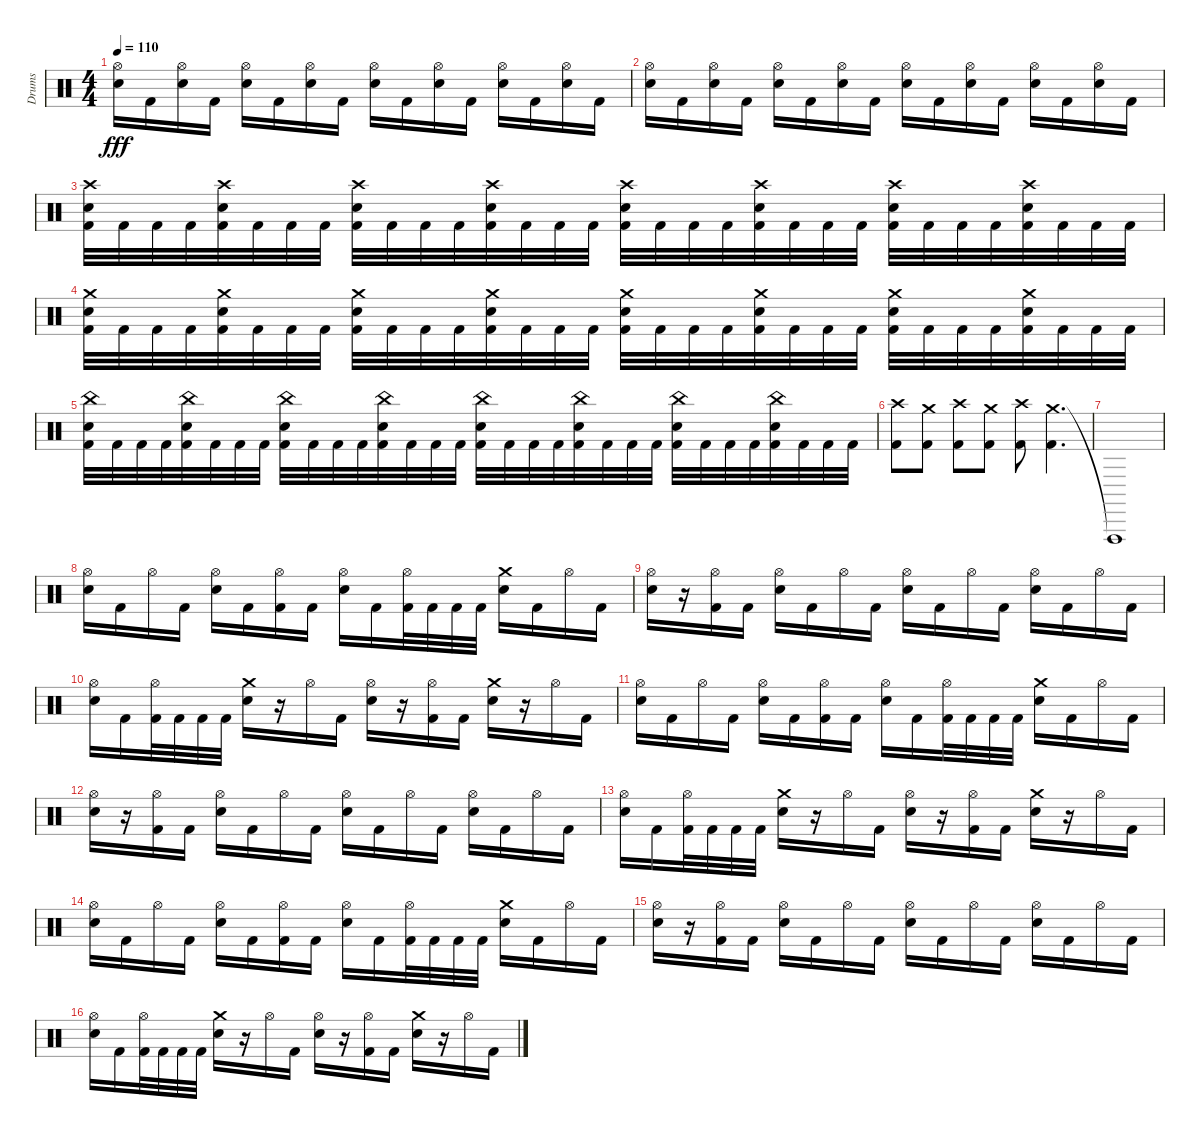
\track ("Drums" "Drums") {instrument percussion}
\staff {score}
\articulation defaults
\ts (4 4)
\tempo 110
\clef neutral
\ks c
("Hi-Hat (open)" "Snare (hit) 2").16{dy fff} "Kick (hit) 2".16 ("Hi-Hat (open)" "Snare (hit) 2").16 "Kick (hit) 2".16 ("Hi-Hat (open)" "Snare (hit) 2").16 "Kick (hit) 2".16 ("Hi-Hat (open)" "Snare (hit) 2").16 "Kick (hit) 2".16 ("Hi-Hat (open)" "Snare (hit) 2").16 "Kick (hit) 2".16 ("Hi-Hat (open)" "Snare (hit) 2").16 "Kick (hit) 2".16 ("Hi-Hat (open)" "Snare (hit) 2").16 "Kick (hit) 2".16 ("Hi-Hat (open)" "Snare (hit) 2").16 "Kick (hit) 2".16 |
("Hi-Hat (open)" "Snare (hit) 2").16 "Kick (hit) 2".16 ("Hi-Hat (open)" "Snare (hit) 2").16 "Kick (hit) 2".16 ("Hi-Hat (open)" "Snare (hit) 2").16 "Kick (hit) 2".16 ("Hi-Hat (open)" "Snare (hit) 2").16 "Kick (hit) 2".16 ("Hi-Hat (open)" "Snare (hit) 2").16 "Kick (hit) 2".16 ("Hi-Hat (open)" "Snare (hit) 2").16 "Kick (hit) 2".16 ("Hi-Hat (open)" "Snare (hit) 2").16 "Kick (hit) 2".16 ("Hi-Hat (open)" "Snare (hit) 2").16 "Kick (hit) 2".16 |
("Crash high (hit)" "Snare (hit) 2" "Kick (hit) 2").32 "Kick (hit) 2".32 "Kick (hit) 2".32 "Kick (hit) 2".32 ("Crash high (hit)" "Snare (hit) 2" "Kick (hit) 2").32 "Kick (hit) 2".32 "Kick (hit) 2".32 "Kick (hit) 2".32 ("Crash high (hit)" "Snare (hit) 2" "Kick (hit) 2").32 "Kick (hit) 2".32 "Kick (hit) 2".32 "Kick (hit) 2".32 ("Crash high (hit)" "Snare (hit) 2" "Kick (hit) 2").32 "Kick (hit) 2".32 "Kick (hit) 2".32 "Kick (hit) 2".32 ("Crash high (hit)" "Snare (hit) 2" "Kick (hit) 2").32 "Kick (hit) 2".32 "Kick (hit) 2".32 "Kick (hit) 2".32 ("Crash high (hit)" "Snare (hit) 2" "Kick (hit) 2").32 "Kick (hit) 2".32 "Kick (hit) 2".32 "Kick (hit) 2".32 ("Crash high (hit)" "Snare (hit) 2" "Kick (hit) 2").32 "Kick (hit) 2".32 "Kick (hit) 2".32 "Kick (hit) 2".32 ("Crash high (hit)" "Snare (hit) 2" "Kick (hit) 2").32 "Kick (hit) 2".32 "Kick (hit) 2".32 "Kick (hit) 2".32 |
("Crash medium (hit)" "Snare (hit) 2" "Kick (hit) 2").32 "Kick (hit) 2".32 "Kick (hit) 2".32 "Kick (hit) 2".32 ("Crash medium (hit)" "Snare (hit) 2" "Kick (hit) 2").32 "Kick (hit) 2".32 "Kick (hit) 2".32 "Kick (hit) 2".32 ("Crash medium (hit)" "Snare (hit) 2" "Kick (hit) 2").32 "Kick (hit) 2".32 "Kick (hit) 2".32 "Kick (hit) 2".32 ("Crash medium (hit)" "Snare (hit) 2" "Kick (hit) 2").32 "Kick (hit) 2".32 "Kick (hit) 2".32 "Kick (hit) 2".32 ("Crash medium (hit)" "Snare (hit) 2" "Kick (hit) 2").32 "Kick (hit) 2".32 "Kick (hit) 2".32 "Kick (hit) 2".32 ("Crash medium (hit)" "Snare (hit) 2" "Kick (hit) 2").32 "Kick (hit) 2".32 "Kick (hit) 2".32 "Kick (hit) 2".32 ("Crash medium (hit)" "Snare (hit) 2" "Kick (hit) 2").32 "Kick (hit) 2".32 "Kick (hit) 2".32 "Kick (hit) 2".32 ("Crash medium (hit)" "Snare (hit) 2" "Kick (hit) 2").32 "Kick (hit) 2".32 "Kick (hit) 2".32 "Kick (hit) 2".32 |
("China (hit)" "Snare (hit) 2" "Kick (hit) 2").32 "Kick (hit) 2".32 "Kick (hit) 2".32 "Kick (hit) 2".32 ("China (hit)" "Snare (hit) 2" "Kick (hit) 2").32 "Kick (hit) 2".32 "Kick (hit) 2".32 "Kick (hit) 2".32 ("China (hit)" "Snare (hit) 2" "Kick (hit) 2").32 "Kick (hit) 2".32 "Kick (hit) 2".32 "Kick (hit) 2".32 ("China (hit)" "Snare (hit) 2" "Kick (hit) 2").32 "Kick (hit) 2".32 "Kick (hit) 2".32 "Kick (hit) 2".32 ("China (hit)" "Snare (hit) 2" "Kick (hit) 2").32 "Kick (hit) 2".32 "Kick (hit) 2".32 "Kick (hit) 2".32 ("China (hit)" "Snare (hit) 2" "Kick (hit) 2").32 "Kick (hit) 2".32 "Kick (hit) 2".32 "Kick (hit) 2".32 ("China (hit)" "Snare (hit) 2" "Kick (hit) 2").32 "Kick (hit) 2".32 "Kick (hit) 2".32 "Kick (hit) 2".32 ("China (hit)" "Snare (hit) 2" "Kick (hit) 2").32 "Kick (hit) 2".32 "Kick (hit) 2".32 "Kick (hit) 2".32 |
("Crash high (hit)" "Kick (hit) 2").8 ("Crash medium (hit)" "Kick (hit) 2").8 ("Crash high (hit)" "Kick (hit) 2").8 ("Crash medium (hit)" "Kick (hit) 2").8 ("Crash high (hit)" "Kick (hit) 2").8 ("Crash medium (hit)" "Kick (hit) 2").4{d} |
"Vibraslap (hit)"{t}.1 |
("Hi-Hat (open)" "Snare (hit) 2").16 "Kick (hit) 2".16 "Hi-Hat (open)".16 "Kick (hit) 2".16 ("Hi-Hat (open)" "Snare (hit) 2").16 "Kick (hit) 2".16 ("Hi-Hat (open)" "Kick (hit) 2").16 "Kick (hit) 2".16 ("Hi-Hat (open)" "Snare (hit) 2").16 "Kick (hit) 2".16 ("Hi-Hat (open)" "Kick (hit) 2").32 "Kick (hit) 2".32 "Kick (hit) 2".32 "Kick (hit) 2".32 ("Crash medium (hit)" "Snare (hit) 2").16 "Kick (hit) 2".16 "Hi-Hat (open)".16 "Kick (hit) 2".16 |
("Hi-Hat (open)" "Snare (hit) 2").16 r.16 ("Hi-Hat (open)" "Kick (hit) 2").16 "Kick (hit) 2".16 ("Hi-Hat (open)" "Snare (hit) 2").16 "Kick (hit) 2".16 "Hi-Hat (open)".16 "Kick (hit) 2".16 ("Hi-Hat (open)" "Snare (hit) 2").16 "Kick (hit) 2".16 "Hi-Hat (open)".16 "Kick (hit) 2".16 ("Hi-Hat (open)" "Snare (hit) 2").16 "Kick (hit) 2".16 "Hi-Hat (open)".16 "Kick (hit) 2".16 |
("Hi-Hat (open)" "Snare (hit) 2").16 "Kick (hit) 2".16 ("Hi-Hat (open)" "Kick (hit) 2").32 "Kick (hit) 2".32 "Kick (hit) 2".32 "Kick (hit) 2".32 ("Crash medium (hit)" "Snare (hit) 2").16 r.16 "Hi-Hat (open)".16 "Kick (hit) 2".16 ("Hi-Hat (open)" "Snare (hit) 2").16 r.16 ("Hi-Hat (open)" "Kick (hit) 2").16 "Kick (hit) 2".16 ("Crash medium (hit)" "Snare (hit) 2").16 r.16 "Hi-Hat (open)".16 "Kick (hit) 2".16 |
("Hi-Hat (open)" "Snare (hit) 2").16 "Kick (hit) 2".16 "Hi-Hat (open)".16 "Kick (hit) 2".16 ("Hi-Hat (open)" "Snare (hit) 2").16 "Kick (hit) 2".16 ("Hi-Hat (open)" "Kick (hit) 2").16 "Kick (hit) 2".16 ("Hi-Hat (open)" "Snare (hit) 2").16 "Kick (hit) 2".16 ("Hi-Hat (open)" "Kick (hit) 2").32 "Kick (hit) 2".32 "Kick (hit) 2".32 "Kick (hit) 2".32 ("Crash medium (hit)" "Snare (hit) 2").16 "Kick (hit) 2".16 "Hi-Hat (open)".16 "Kick (hit) 2".16 |
("Hi-Hat (open)" "Snare (hit) 2").16 r.16 ("Hi-Hat (open)" "Kick (hit) 2").16 "Kick (hit) 2".16 ("Hi-Hat (open)" "Snare (hit) 2").16 "Kick (hit) 2".16 "Hi-Hat (open)".16 "Kick (hit) 2".16 ("Hi-Hat (open)" "Snare (hit) 2").16 "Kick (hit) 2".16 "Hi-Hat (open)".16 "Kick (hit) 2".16 ("Hi-Hat (open)" "Snare (hit) 2").16 "Kick (hit) 2".16 "Hi-Hat (open)".16 "Kick (hit) 2".16 |
("Hi-Hat (open)" "Snare (hit) 2").16 "Kick (hit) 2".16 ("Hi-Hat (open)" "Kick (hit) 2").32 "Kick (hit) 2".32 "Kick (hit) 2".32 "Kick (hit) 2".32 ("Crash medium (hit)" "Snare (hit) 2").16 r.16 "Hi-Hat (open)".16 "Kick (hit) 2".16 ("Hi-Hat (open)" "Snare (hit) 2").16 r.16 ("Hi-Hat (open)" "Kick (hit) 2").16 "Kick (hit) 2".16 ("Crash medium (hit)" "Snare (hit) 2").16 r.16 "Hi-Hat (open)".16 "Kick (hit) 2".16 |
("Hi-Hat (open)" "Snare (hit) 2").16 "Kick (hit) 2".16 "Hi-Hat (open)".16 "Kick (hit) 2".16 ("Hi-Hat (open)" "Snare (hit) 2").16 "Kick (hit) 2".16 ("Hi-Hat (open)" "Kick (hit) 2").16 "Kick (hit) 2".16 ("Hi-Hat (open)" "Snare (hit) 2").16 "Kick (hit) 2".16 ("Hi-Hat (open)" "Kick (hit) 2").32 "Kick (hit) 2".32 "Kick (hit) 2".32 "Kick (hit) 2".32 ("Crash medium (hit)" "Snare (hit) 2").16 "Kick (hit) 2".16 "Hi-Hat (open)".16 "Kick (hit) 2".16 |
("Hi-Hat (open)" "Snare (hit) 2").16 r.16 ("Hi-Hat (open)" "Kick (hit) 2").16 "Kick (hit) 2".16 ("Hi-Hat (open)" "Snare (hit) 2").16 "Kick (hit) 2".16 "Hi-Hat (open)".16 "Kick (hit) 2".16 ("Hi-Hat (open)" "Snare (hit) 2").16 "Kick (hit) 2".16 "Hi-Hat (open)".16 "Kick (hit) 2".16 ("Hi-Hat (open)" "Snare (hit) 2").16 "Kick (hit) 2".16 "Hi-Hat (open)".16 "Kick (hit) 2".16 |
("Hi-Hat (open)" "Snare (hit) 2").16 "Kick (hit) 2".16 ("Hi-Hat (open)" "Kick (hit) 2").32 "Kick (hit) 2".32 "Kick (hit) 2".32 "Kick (hit) 2".32 ("Crash medium (hit)" "Snare (hit) 2").16 r.16 "Hi-Hat (open)".16 "Kick (hit) 2".16 ("Hi-Hat (open)" "Snare (hit) 2").16 r.16 ("Hi-Hat (open)" "Kick (hit) 2").16 "Kick (hit) 2".16 ("Crash medium (hit)" "Snare (hit) 2").16 r.16 "Hi-Hat (open)".16 "Kick (hit) 2".16
